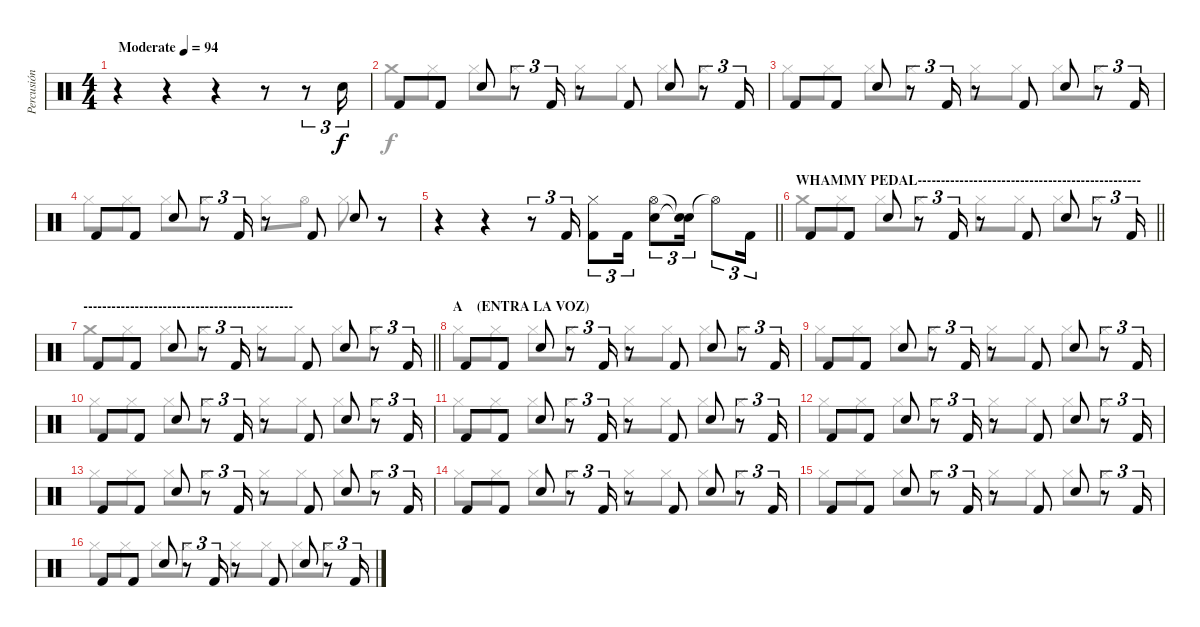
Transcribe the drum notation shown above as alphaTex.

\track ("Percusión" "Percusión") {instrument percussion}
\staff {score}
\articulation defaults
\voice
\ts (4 4)
\tempo (94 "Moderate")
\clef neutral
\ks c
r.4{dy f} r.4 r.4 r.8 r.8{tu (3 2)} "Electric Snare (hit)".16{tu (3 2)} |
"Kick (hit) 2".8 "Kick (hit) 2".8 "Electric Snare (hit)".8 r.8{tu (3 2)} "Kick (hit) 2".16{tu (3 2)} r.8 "Kick (hit) 2".8 "Electric Snare (hit)".8 r.8{tu (3 2)} "Kick (hit) 2".16{tu (3 2)} |
"Kick (hit) 2".8 "Kick (hit) 2".8 "Electric Snare (hit)".8 r.8{tu (3 2)} "Kick (hit) 2".16{tu (3 2)} r.8 "Kick (hit) 2".8 "Electric Snare (hit)".8 r.8{tu (3 2)} "Kick (hit) 2".16{tu (3 2)} |
"Kick (hit) 2".8 "Kick (hit) 2".8 "Electric Snare (hit)".8 r.8{tu (3 2)} "Kick (hit) 2".16{tu (3 2)} r.8 "Kick (hit) 2".8 "Electric Snare (hit)".8 r.8 |
\barLineRight lightlight
r.4 r.4 r.8{tu (3 2)} "Kick (hit) 2".16{tu (3 2)} ("Hi-Hat (closed)" "Kick (hit) 2").8{tu (3 2)} "Kick (hit) 2".16{tu (3 2)} ("Hi-Hat (open)" "Electric Snare (hit)").8{tu (3 2)} ("Electric Snare (hit)"{t} "Snare (hit)"{t}).16{tu (3 2)} "Hi-Hat (open)"{t}.8{tu (3 2)} "Kick (hit) 2".16{tu (3 2)} |
\section ("" "WHAMMY PEDAL------------------------------------------------")
\barLineRight lightlight "Kick (hit) 2".8 "Kick (hit) 2".8 "Electric Snare (hit)".8
r.8{tu (3 2)} "Kick (hit) 2".16{tu (3 2)} r.8 "Kick (hit) 2".8 "Electric Snare (hit)".8 r.8{tu (3 2)} "Kick (hit) 2".16{tu (3 2)} |
\section ("" "---------------------------------------------")
\barLineRight lightlight "Kick (hit) 2".8 "Kick (hit) 2".8 "Electric Snare (hit)".8
r.8{tu (3 2)} "Kick (hit) 2".16{tu (3 2)} r.8 "Kick (hit) 2".8 "Electric Snare (hit)".8 r.8{tu (3 2)} "Kick (hit) 2".16{tu (3 2)} |
\section ("" "A    (ENTRA LA VOZ)")
"Kick (hit) 2".8 "Kick (hit) 2".8 "Electric Snare (hit)".8 r.8{tu (3 2)} "Kick (hit) 2".16{tu (3 2)} r.8 "Kick (hit) 2".8 "Electric Snare (hit)".8 r.8{tu (3 2)} "Kick (hit) 2".16{tu (3 2)} |
"Kick (hit) 2".8 "Kick (hit) 2".8 "Electric Snare (hit)".8 r.8{tu (3 2)} "Kick (hit) 2".16{tu (3 2)} r.8 "Kick (hit) 2".8 "Electric Snare (hit)".8 r.8{tu (3 2)} "Kick (hit) 2".16{tu (3 2)} |
"Kick (hit) 2".8 "Kick (hit) 2".8 "Electric Snare (hit)".8 r.8{tu (3 2)} "Kick (hit) 2".16{tu (3 2)} r.8 "Kick (hit) 2".8 "Electric Snare (hit)".8 r.8{tu (3 2)} "Kick (hit) 2".16{tu (3 2)} |
"Kick (hit) 2".8 "Kick (hit) 2".8 "Electric Snare (hit)".8 r.8{tu (3 2)} "Kick (hit) 2".16{tu (3 2)} r.8 "Kick (hit) 2".8 "Electric Snare (hit)".8 r.8{tu (3 2)} "Kick (hit) 2".16{tu (3 2)} |
"Kick (hit) 2".8 "Kick (hit) 2".8 "Electric Snare (hit)".8 r.8{tu (3 2)} "Kick (hit) 2".16{tu (3 2)} r.8 "Kick (hit) 2".8 "Electric Snare (hit)".8 r.8{tu (3 2)} "Kick (hit) 2".16{tu (3 2)} |
"Kick (hit) 2".8 "Kick (hit) 2".8 "Electric Snare (hit)".8 r.8{tu (3 2)} "Kick (hit) 2".16{tu (3 2)} r.8 "Kick (hit) 2".8 "Electric Snare (hit)".8 r.8{tu (3 2)} "Kick (hit) 2".16{tu (3 2)} |
"Kick (hit) 2".8 "Kick (hit) 2".8 "Electric Snare (hit)".8 r.8{tu (3 2)} "Kick (hit) 2".16{tu (3 2)} r.8 "Kick (hit) 2".8 "Electric Snare (hit)".8 r.8{tu (3 2)} "Kick (hit) 2".16{tu (3 2)} |
"Kick (hit) 2".8 "Kick (hit) 2".8 "Electric Snare (hit)".8 r.8{tu (3 2)} "Kick (hit) 2".16{tu (3 2)} r.8 "Kick (hit) 2".8 "Electric Snare (hit)".8 r.8{tu (3 2)} "Kick (hit) 2".16{tu (3 2)} |
"Kick (hit) 2".8 "Kick (hit) 2".8 "Electric Snare (hit)".8 r.8{tu (3 2)} "Kick (hit) 2".16{tu (3 2)} r.8 "Kick (hit) 2".8 "Electric Snare (hit)".8 r.8{tu (3 2)} "Kick (hit) 2".16{tu (3 2)}
\voice
\clef neutral
\ottava regular
\simile none
\ks c
|
"Crash medium (hit)".8 "Hi-Hat (closed)".8 "Hi-Hat (closed)".8 "Hi-Hat (closed)".8 "Hi-Hat (closed)".8 "Hi-Hat (closed)".8 "Hi-Hat (closed)".8 "Hi-Hat (closed)".8 |
"Hi-Hat (closed)".8 "Hi-Hat (closed)".8 "Hi-Hat (closed)".8 "Hi-Hat (closed)".8 "Hi-Hat (closed)".8 "Hi-Hat (closed)".8 "Hi-Hat (closed)".8 "Hi-Hat (closed)".8 |
"Hi-Hat (closed)".8 "Hi-Hat (closed)".8 "Hi-Hat (closed)".8 "Hi-Hat (closed)".8 "Hi-Hat (closed)".8 "Hi-Hat (open)".8 "Hi-Hat (closed)".8 r.8 |
\barLineRight lightlight
|
\barLineRight lightlight "Crash medium (hit)".8 "Hi-Hat (closed)".8 "Hi-Hat (closed)".8 "Hi-Hat (closed)".8 "Hi-Hat (closed)".8 "Hi-Hat (closed)".8 "Hi-Hat (closed)".8 "Hi-Hat (closed)".8
|
\barLineRight lightlight "Crash medium (hit)".8 "Hi-Hat (closed)".8 "Hi-Hat (closed)".8 "Hi-Hat (closed)".8 "Hi-Hat (closed)".8 "Hi-Hat (closed)".8 "Hi-Hat (closed)".8 "Hi-Hat (closed)".8
|
"Hi-Hat (closed)".8 "Hi-Hat (closed)".8 "Hi-Hat (closed)".8 "Hi-Hat (closed)".8 "Hi-Hat (closed)".8 "Hi-Hat (closed)".8 "Hi-Hat (closed)".8 "Hi-Hat (closed)".8 |
"Hi-Hat (closed)".8 "Hi-Hat (closed)".8 "Hi-Hat (closed)".8 "Hi-Hat (closed)".8 "Hi-Hat (closed)".8 "Hi-Hat (closed)".8 "Hi-Hat (closed)".8 "Hi-Hat (closed)".8 |
"Hi-Hat (closed)".8 "Hi-Hat (closed)".8 "Hi-Hat (closed)".8 "Hi-Hat (closed)".8 "Hi-Hat (closed)".8 "Hi-Hat (closed)".8 "Hi-Hat (closed)".8 "Hi-Hat (closed)".8 |
"Hi-Hat (closed)".8 "Hi-Hat (closed)".8 "Hi-Hat (closed)".8 "Hi-Hat (closed)".8 "Hi-Hat (closed)".8 "Hi-Hat (closed)".8 "Hi-Hat (closed)".8 "Hi-Hat (closed)".8 |
"Hi-Hat (closed)".8 "Hi-Hat (closed)".8 "Hi-Hat (closed)".8 "Hi-Hat (closed)".8 "Hi-Hat (closed)".8 "Hi-Hat (closed)".8 "Hi-Hat (closed)".8 "Hi-Hat (closed)".8 |
"Hi-Hat (closed)".8 "Hi-Hat (closed)".8 "Hi-Hat (closed)".8 "Hi-Hat (closed)".8 "Hi-Hat (closed)".8 "Hi-Hat (closed)".8 "Hi-Hat (closed)".8 "Hi-Hat (closed)".8 |
"Hi-Hat (closed)".8 "Hi-Hat (closed)".8 "Hi-Hat (closed)".8 "Hi-Hat (closed)".8 "Hi-Hat (closed)".8 "Hi-Hat (closed)".8 "Hi-Hat (closed)".8 "Hi-Hat (closed)".8 |
"Hi-Hat (closed)".8 "Hi-Hat (closed)".8 "Hi-Hat (closed)".8 "Hi-Hat (closed)".8 "Hi-Hat (closed)".8 "Hi-Hat (closed)".8 "Hi-Hat (closed)".8 "Hi-Hat (closed)".8 |
"Hi-Hat (closed)".8 "Hi-Hat (closed)".8 "Hi-Hat (closed)".8 "Hi-Hat (closed)".8 "Hi-Hat (closed)".8 "Hi-Hat (closed)".8 "Hi-Hat (closed)".8 "Hi-Hat (closed)".8
